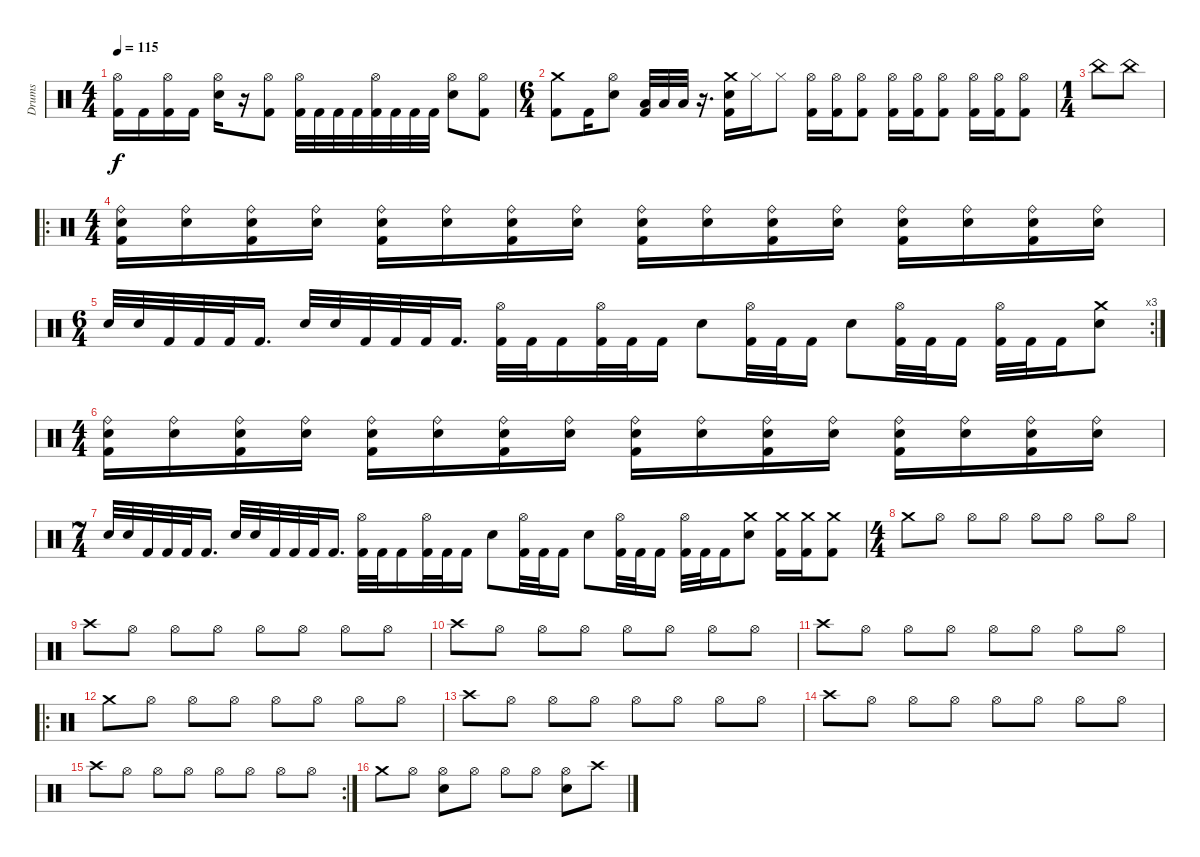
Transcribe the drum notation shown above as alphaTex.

\track ("Drums" "Drums") {instrument percussion}
\staff {score}
\articulation defaults
\ts (4 4)
\tempo 115
\clef neutral
\ks c
("Kick (hit) 2" "Hi-Hat (open)").16{dy f} "Kick (hit) 2".16 ("Kick (hit) 2" "Hi-Hat (open)").16 "Kick (hit) 2".16 ("Hi-Hat (open)" "Snare (hit) 2").16 r.16 ("Kick (hit) 2" "Hi-Hat (open)").8 ("Kick (hit) 2" "Hi-Hat (open)").32 "Kick (hit) 2".32 "Kick (hit) 2".32 "Kick (hit) 2".32 ("Kick (hit) 2" "Hi-Hat (open)").32 "Kick (hit) 2".32 "Kick (hit) 2".32 "Kick (hit) 2".32 ("Hi-Hat (open)" "Snare (hit) 2").8 ("Kick (hit) 2" "Hi-Hat (open)").8 |
\ts (6 4)
("Kick (hit) 2" "Crash medium (hit)").8 "Kick (hit) 2".16 ("Hi-Hat (open)" "Snare (hit) 2").8 ("Kick (hit) 2" "Low Floor Tom (hit)").32 "Low Floor Tom (hit)".32 "Low Floor Tom (hit)".32 r.16{d} ("Kick (hit) 2" "Crash medium (hit)" "Snare (hit) 2").16 "Hi-Hat (closed)".16 "Hi-Hat (closed)".8 ("Kick (hit) 2" "Hi-Hat (open)").16 ("Kick (hit) 2" "Hi-Hat (open)").16 ("Kick (hit) 2" "Hi-Hat (open)").8 ("Kick (hit) 2" "Hi-Hat (open)").16 ("Kick (hit) 2" "Hi-Hat (open)").16 ("Kick (hit) 2" "Hi-Hat (open)").8 ("Kick (hit) 2" "Hi-Hat (open)").16 ("Kick (hit) 2" "Hi-Hat (open)").16 ("Kick (hit) 2" "Hi-Hat (open)").8 |
\ts (1 4)
"China (hit)".8 "China (hit)".8 |
\ro
\ts (4 4)
("Kick (hit) 2" "Ride (bell)" "Snare (hit) 2").16 ("Ride (bell)" "Snare (hit) 2").16 ("Kick (hit) 2" "Ride (bell)" "Snare (hit) 2").16 ("Ride (bell)" "Snare (hit) 2").16 ("Kick (hit) 2" "Ride (bell)" "Snare (hit) 2").16 ("Ride (bell)" "Snare (hit) 2").16 ("Kick (hit) 2" "Ride (bell)" "Snare (hit) 2").16 ("Ride (bell)" "Snare (hit) 2").16 ("Kick (hit) 2" "Ride (bell)" "Snare (hit) 2").16 ("Ride (bell)" "Snare (hit) 2").16 ("Kick (hit) 2" "Ride (bell)" "Snare (hit) 2").16 ("Ride (bell)" "Snare (hit) 2").16 ("Kick (hit) 2" "Ride (bell)" "Snare (hit) 2").16 ("Ride (bell)" "Snare (hit) 2").16 ("Kick (hit) 2" "Ride (bell)" "Snare (hit) 2").16 ("Ride (bell)" "Snare (hit) 2").16 |
\rc 3
\ts (6 4)
"Snare (hit) 2".32 "Snare (hit) 2".32 "Kick (hit) 2".32 "Kick (hit) 2".32 "Kick (hit) 2".32 "Kick (hit) 2".16{d} "Snare (hit) 2".32 "Snare (hit) 2".32 "Kick (hit) 2".32 "Kick (hit) 2".32 "Kick (hit) 2".32 "Kick (hit) 2".16{d} ("Kick (hit) 2" "Hi-Hat (open)").32 "Kick (hit) 2".32 "Kick (hit) 2".16 ("Kick (hit) 2" "Hi-Hat (open)").32 "Kick (hit) 2".32 "Kick (hit) 2".16 "Snare (hit) 2".8 ("Kick (hit) 2" "Hi-Hat (open)").32 "Kick (hit) 2".32 "Kick (hit) 2".16 "Snare (hit) 2".8 ("Kick (hit) 2" "Hi-Hat (open)").32 "Kick (hit) 2".32 "Kick (hit) 2".16 ("Kick (hit) 2" "Hi-Hat (open)").32 "Kick (hit) 2".32 "Kick (hit) 2".16 ("Crash medium (hit)" "Snare (hit) 2").8 |
\ts (4 4)
("Kick (hit) 2" "Ride (bell)" "Snare (hit) 2").16 ("Ride (bell)" "Snare (hit) 2").16 ("Kick (hit) 2" "Ride (bell)" "Snare (hit) 2").16 ("Ride (bell)" "Snare (hit) 2").16 ("Kick (hit) 2" "Ride (bell)" "Snare (hit) 2").16 ("Ride (bell)" "Snare (hit) 2").16 ("Kick (hit) 2" "Ride (bell)" "Snare (hit) 2").16 ("Ride (bell)" "Snare (hit) 2").16 ("Kick (hit) 2" "Ride (bell)" "Snare (hit) 2").16 ("Ride (bell)" "Snare (hit) 2").16 ("Kick (hit) 2" "Ride (bell)" "Snare (hit) 2").16 ("Ride (bell)" "Snare (hit) 2").16 ("Kick (hit) 2" "Ride (bell)" "Snare (hit) 2").16 ("Ride (bell)" "Snare (hit) 2").16 ("Kick (hit) 2" "Ride (bell)" "Snare (hit) 2").16 ("Ride (bell)" "Snare (hit) 2").16 |
\ts (7 4)
"Snare (hit) 2".32 "Snare (hit) 2".32 "Kick (hit) 2".32 "Kick (hit) 2".32 "Kick (hit) 2".32 "Kick (hit) 2".16{d} "Snare (hit) 2".32 "Snare (hit) 2".32 "Kick (hit) 2".32 "Kick (hit) 2".32 "Kick (hit) 2".32 "Kick (hit) 2".16{d} ("Kick (hit) 2" "Hi-Hat (open)").32 "Kick (hit) 2".32 "Kick (hit) 2".16 ("Kick (hit) 2" "Hi-Hat (open)").32 "Kick (hit) 2".32 "Kick (hit) 2".16 "Snare (hit) 2".8 ("Kick (hit) 2" "Hi-Hat (open)").32 "Kick (hit) 2".32 "Kick (hit) 2".16 "Snare (hit) 2".8 ("Kick (hit) 2" "Hi-Hat (open)").32 "Kick (hit) 2".32 "Kick (hit) 2".16 ("Kick (hit) 2" "Hi-Hat (open)").32 "Kick (hit) 2".32 "Kick (hit) 2".16 ("Crash medium (hit)" "Snare (hit) 2").8 ("Kick (hit) 2" "Crash medium (hit)").16 ("Kick (hit) 2" "Crash medium (hit)").16 ("Kick (hit) 2" "Crash medium (hit)").8 |
\ts (4 4)
"Crash medium (hit)".8 "Hi-Hat (open)".8 "Hi-Hat (open)".8 "Hi-Hat (open)".8 "Hi-Hat (open)".8 "Hi-Hat (open)".8 "Hi-Hat (open)".8 "Hi-Hat (open)".8 |
"Crash high (hit)".8 "Hi-Hat (open)".8 "Hi-Hat (open)".8 "Hi-Hat (open)".8 "Hi-Hat (open)".8 "Hi-Hat (open)".8 "Hi-Hat (open)".8 "Hi-Hat (open)".8 |
"Crash high (hit)".8 "Hi-Hat (open)".8 "Hi-Hat (open)".8 "Hi-Hat (open)".8 "Hi-Hat (open)".8 "Hi-Hat (open)".8 "Hi-Hat (open)".8 "Hi-Hat (open)".8 |
"Crash high (hit)".8 "Hi-Hat (open)".8 "Hi-Hat (open)".8 "Hi-Hat (open)".8 "Hi-Hat (open)".8 "Hi-Hat (open)".8 "Hi-Hat (open)".8 "Hi-Hat (open)".8 |
\ro "Crash medium (hit)".8 "Hi-Hat (open)".8 "Hi-Hat (open)".8 "Hi-Hat (open)".8 "Hi-Hat (open)".8 "Hi-Hat (open)".8 "Hi-Hat (open)".8 "Hi-Hat (open)".8
|
"Crash high (hit)".8 "Hi-Hat (open)".8 "Hi-Hat (open)".8 "Hi-Hat (open)".8 "Hi-Hat (open)".8 "Hi-Hat (open)".8 "Hi-Hat (open)".8 "Hi-Hat (open)".8 |
"Crash high (hit)".8 "Hi-Hat (open)".8 "Hi-Hat (open)".8 "Hi-Hat (open)".8 "Hi-Hat (open)".8 "Hi-Hat (open)".8 "Hi-Hat (open)".8 "Hi-Hat (open)".8 |
\rc 2 "Crash high (hit)".8 "Hi-Hat (open)".8 "Hi-Hat (open)".8 "Hi-Hat (open)".8 "Hi-Hat (open)".8 "Hi-Hat (open)".8 "Hi-Hat (open)".8 "Hi-Hat (open)".8
|
"Crash medium (hit)".8 "Hi-Hat (open)".8 ("Hi-Hat (open)" "Snare (hit) 2").8 "Hi-Hat (open)".8 "Hi-Hat (open)".8 "Hi-Hat (open)".8 ("Hi-Hat (open)" "Snare (hit) 2").8 "Crash high (hit)".8
